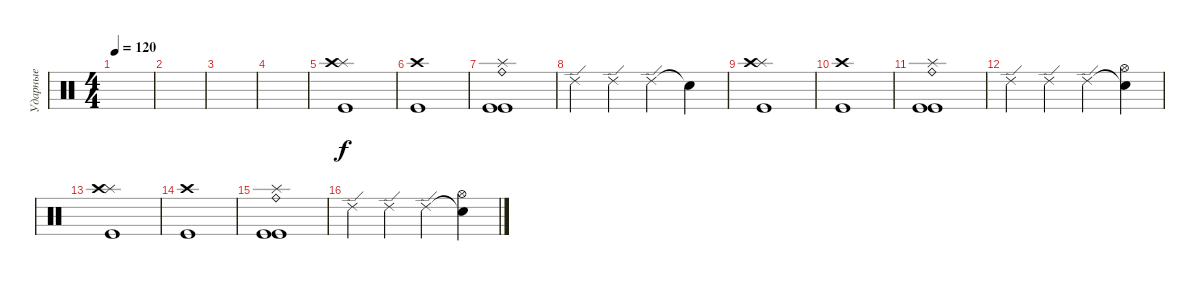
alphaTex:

\track ("Ударные" "Ударные") {instrument percussion}
\staff {score}
\articulation defaults
\ts (4 4)
\tempo 120
\clef neutral
\ks c
|
|
|
|
("Splash (hit)" "Crash high (hit)" "Kick (hit)").1 |
("Crash high (hit)" "Kick (hit)").1 |
("Splash (hit)" "Ride (bell)" "Kick (hit)" "Kick (hit)").1 |
"Ride (edge) 2".4 "Ride (edge) 2".4 "Ride (edge) 2".4 "Snare (hit)"{t}.4 |
("Splash (hit)" "Crash high (hit)" "Kick (hit)").1 |
("Crash high (hit)" "Kick (hit)").1 |
("Splash (hit)" "Ride (bell)" "Kick (hit)" "Kick (hit)").1 |
"Ride (edge) 2".4 "Ride (edge) 2".4 "Ride (edge) 2".4 ("Snare (hit)"{t} "Hi-Hat (open)").4 |
("Splash (hit)" "Crash high (hit)" "Kick (hit)").1 |
("Crash high (hit)" "Kick (hit)").1 |
("Splash (hit)" "Ride (bell)" "Kick (hit)" "Kick (hit)").1 |
"Ride (edge) 2".4 "Ride (edge) 2".4 "Ride (edge) 2".4 ("Snare (hit)"{t} "Hi-Hat (open)").4
